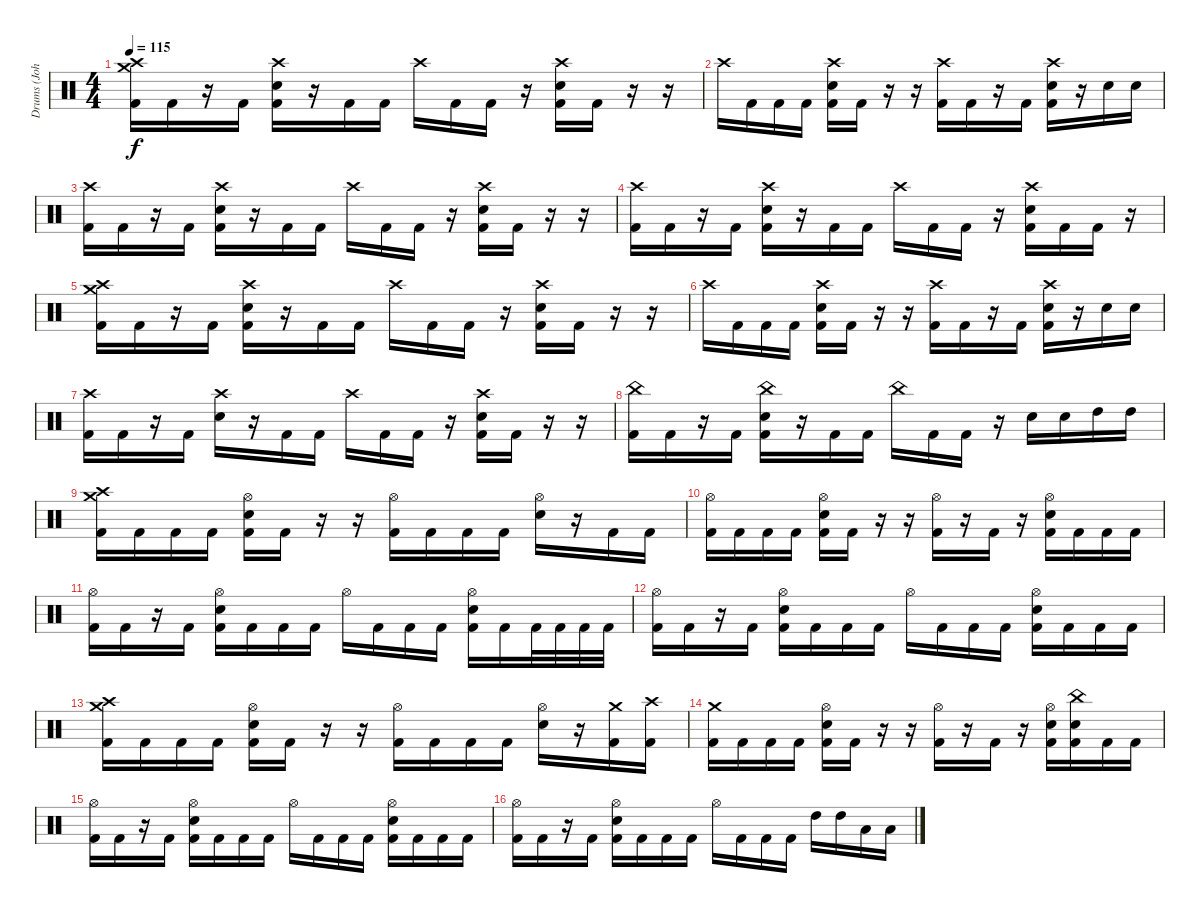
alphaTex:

\track ("Drums (Johno)" "Drums (Joh") {instrument percussion}
\staff {score}
\articulation defaults
\ts (4 4)
\tempo 115
\clef neutral
\ks c
("Crash medium (hit)" "Crash high (hit)" "Kick (hit) 2").16{dy f} "Kick (hit) 2".16 r.16 "Kick (hit) 2".16 ("Crash high (hit)" "Electric Snare (hit)" "Kick (hit) 2").16 r.16 "Kick (hit) 2".16 "Kick (hit) 2".16 "Crash high (hit)".16 "Kick (hit) 2".16 "Kick (hit) 2".16 r.16 ("Crash high (hit)" "Electric Snare (hit)" "Kick (hit) 2").16 "Kick (hit) 2".16 r.16 r.16 |
"Crash high (hit)".16 "Kick (hit) 2".16 "Kick (hit) 2".16 "Kick (hit) 2".16 ("Crash high (hit)" "Electric Snare (hit)" "Kick (hit) 2").16 "Kick (hit) 2".16 r.16 r.16 ("Crash high (hit)" "Kick (hit) 2").16 "Kick (hit) 2".16 r.16 "Kick (hit) 2".16 ("Crash high (hit)" "Electric Snare (hit)" "Kick (hit) 2").16 r.16 "Electric Snare (hit)".16 "Electric Snare (hit)".16 |
("Crash high (hit)" "Kick (hit) 2").16 "Kick (hit) 2".16 r.16 "Kick (hit) 2".16 ("Crash high (hit)" "Electric Snare (hit)" "Kick (hit) 2").16 r.16 "Kick (hit) 2".16 "Kick (hit) 2".16 "Crash high (hit)".16 "Kick (hit) 2".16 "Kick (hit) 2".16 r.16 ("Crash high (hit)" "Electric Snare (hit)" "Kick (hit) 2").16 "Kick (hit) 2".16 r.16 r.16 |
("Crash high (hit)" "Kick (hit) 2").16 "Kick (hit) 2".16 r.16 "Kick (hit) 2".16 ("Crash high (hit)" "Electric Snare (hit)" "Kick (hit) 2").16 r.16 "Kick (hit) 2".16 "Kick (hit) 2".16 "Crash high (hit)".16 "Kick (hit) 2".16 "Kick (hit) 2".16 r.16 ("Crash high (hit)" "Electric Snare (hit)" "Kick (hit) 2").16 "Kick (hit) 2".16 "Kick (hit) 2".16 r.16 |
("Crash medium (hit)" "Crash high (hit)" "Kick (hit) 2").16 "Kick (hit) 2".16 r.16 "Kick (hit) 2".16 ("Crash high (hit)" "Electric Snare (hit)" "Kick (hit) 2").16 r.16 "Kick (hit) 2".16 "Kick (hit) 2".16 "Crash high (hit)".16 "Kick (hit) 2".16 "Kick (hit) 2".16 r.16 ("Crash high (hit)" "Electric Snare (hit)" "Kick (hit) 2").16 "Kick (hit) 2".16 r.16 r.16 |
"Crash high (hit)".16 "Kick (hit) 2".16 "Kick (hit) 2".16 "Kick (hit) 2".16 ("Crash high (hit)" "Electric Snare (hit)" "Kick (hit) 2").16 "Kick (hit) 2".16 r.16 r.16 ("Crash high (hit)" "Kick (hit) 2").16 "Kick (hit) 2".16 r.16 "Kick (hit) 2".16 ("Crash high (hit)" "Electric Snare (hit)" "Kick (hit) 2").16 r.16 "Electric Snare (hit)".16 "Electric Snare (hit)".16 |
("Crash high (hit)" "Kick (hit) 2").16 "Kick (hit) 2".16 r.16 "Kick (hit) 2".16 ("Crash high (hit)" "Electric Snare (hit)").16 r.16 "Kick (hit) 2".16 "Kick (hit) 2".16 "Crash high (hit)".16 "Kick (hit) 2".16 "Kick (hit) 2".16 r.16 ("Crash high (hit)" "Electric Snare (hit)" "Kick (hit) 2").16 "Kick (hit) 2".16 r.16 r.16 |
("China (hit)" "Kick (hit) 2").16 "Kick (hit) 2".16 r.16 "Kick (hit) 2".16 ("China (hit)" "Electric Snare (hit)" "Kick (hit) 2").16 r.16 "Kick (hit) 2".16 "Kick (hit) 2".16 "China (hit)".16 "Kick (hit) 2".16 "Kick (hit) 2".16 r.16 "Electric Snare (hit)".16 "Electric Snare (hit)".16 "High Tom (hit)".16 "High Tom (hit)".16 |
("Crash medium (hit)" "Crash high (hit)" "Kick (hit) 2").16 "Kick (hit) 2".16 "Kick (hit) 2".16 "Kick (hit) 2".16 ("Hi-Hat (open)" "Electric Snare (hit)" "Kick (hit) 2").16 "Kick (hit) 2".16 r.16 r.16 ("Hi-Hat (open)" "Kick (hit) 2").16 "Kick (hit) 2".16 "Kick (hit) 2".16 "Kick (hit) 2".16 ("Hi-Hat (open)" "Electric Snare (hit)").16 r.16 "Kick (hit) 2".16 "Kick (hit) 2".16 |
("Hi-Hat (open)" "Kick (hit) 2").16 "Kick (hit) 2".16 "Kick (hit) 2".16 "Kick (hit) 2".16 ("Hi-Hat (open)" "Electric Snare (hit)" "Kick (hit) 2").16 "Kick (hit) 2".16 r.16 r.16 ("Hi-Hat (open)" "Kick (hit) 2").16 r.16 "Kick (hit) 2".16 r.16 ("Hi-Hat (open)" "Electric Snare (hit)" "Kick (hit) 2").16 "Kick (hit) 2".16 "Kick (hit) 2".16 "Kick (hit) 2".16 |
("Hi-Hat (open)" "Kick (hit) 2").16 "Kick (hit) 2".16 r.16 "Kick (hit) 2".16 ("Hi-Hat (open)" "Electric Snare (hit)" "Kick (hit) 2").16 "Kick (hit) 2".16 "Kick (hit) 2".16 "Kick (hit) 2".16 "Hi-Hat (open)".16 "Kick (hit) 2".16 "Kick (hit) 2".16 "Kick (hit) 2".16 ("Hi-Hat (open)" "Electric Snare (hit)" "Kick (hit) 2").16 "Kick (hit) 2".16 "Kick (hit) 2".32 "Kick (hit) 2".32 "Kick (hit) 2".32 "Kick (hit) 2".32 |
("Hi-Hat (open)" "Kick (hit) 2").16 "Kick (hit) 2".16 r.16 "Kick (hit) 2".16 ("Hi-Hat (open)" "Electric Snare (hit)" "Kick (hit) 2").16 "Kick (hit) 2".16 "Kick (hit) 2".16 "Kick (hit) 2".16 "Hi-Hat (open)".16 "Kick (hit) 2".16 "Kick (hit) 2".16 "Kick (hit) 2".16 ("Hi-Hat (open)" "Electric Snare (hit)" "Kick (hit) 2").16 "Kick (hit) 2".16 "Kick (hit) 2".16 "Kick (hit) 2".16 |
("Crash medium (hit)" "Crash high (hit)" "Kick (hit) 2").16 "Kick (hit) 2".16 "Kick (hit) 2".16 "Kick (hit) 2".16 ("Hi-Hat (open)" "Electric Snare (hit)" "Kick (hit) 2").16 "Kick (hit) 2".16 r.16 r.16 ("Hi-Hat (open)" "Kick (hit) 2").16 "Kick (hit) 2".16 "Kick (hit) 2".16 "Kick (hit) 2".16 ("Hi-Hat (open)" "Electric Snare (hit)").16 r.16 ("Crash medium (hit)" "Kick (hit) 2").16 ("Crash high (hit)" "Kick (hit) 2").16 |
("Crash medium (hit)" "Kick (hit) 2").16 "Kick (hit) 2".16 "Kick (hit) 2".16 "Kick (hit) 2".16 ("Hi-Hat (open)" "Electric Snare (hit)" "Kick (hit) 2").16 "Kick (hit) 2".16 r.16 r.16 ("Hi-Hat (open)" "Kick (hit) 2").16 r.16 "Kick (hit) 2".16 r.16 ("Hi-Hat (open)" "Electric Snare (hit)" "Kick (hit) 2").16 ("China (hit)" "Electric Snare (hit)" "Kick (hit) 2").16 "Kick (hit) 2".16 "Kick (hit) 2".16 |
("Hi-Hat (open)" "Kick (hit) 2").16 "Kick (hit) 2".16 r.16 "Kick (hit) 2".16 ("Hi-Hat (open)" "Electric Snare (hit)" "Kick (hit) 2").16 "Kick (hit) 2".16 "Kick (hit) 2".16 "Kick (hit) 2".16 "Hi-Hat (open)".16 "Kick (hit) 2".16 "Kick (hit) 2".16 "Kick (hit) 2".16 ("Hi-Hat (open)" "Electric Snare (hit)" "Kick (hit) 2").16 "Kick (hit) 2".16 "Kick (hit) 2".16 "Kick (hit) 2".16 |
("Hi-Hat (open)" "Kick (hit) 2").16 "Kick (hit) 2".16 r.16 "Kick (hit) 2".16 ("Hi-Hat (open)" "Electric Snare (hit)" "Kick (hit) 2").16 "Kick (hit) 2".16 "Kick (hit) 2".16 "Kick (hit) 2".16 "Hi-Hat (open)".16 "Kick (hit) 2".16 "Kick (hit) 2".16 "Kick (hit) 2".16 "High Tom (hit)".16 "High Tom (hit)".16 "Low Floor Tom (hit)".16 "Low Floor Tom (hit)".16
